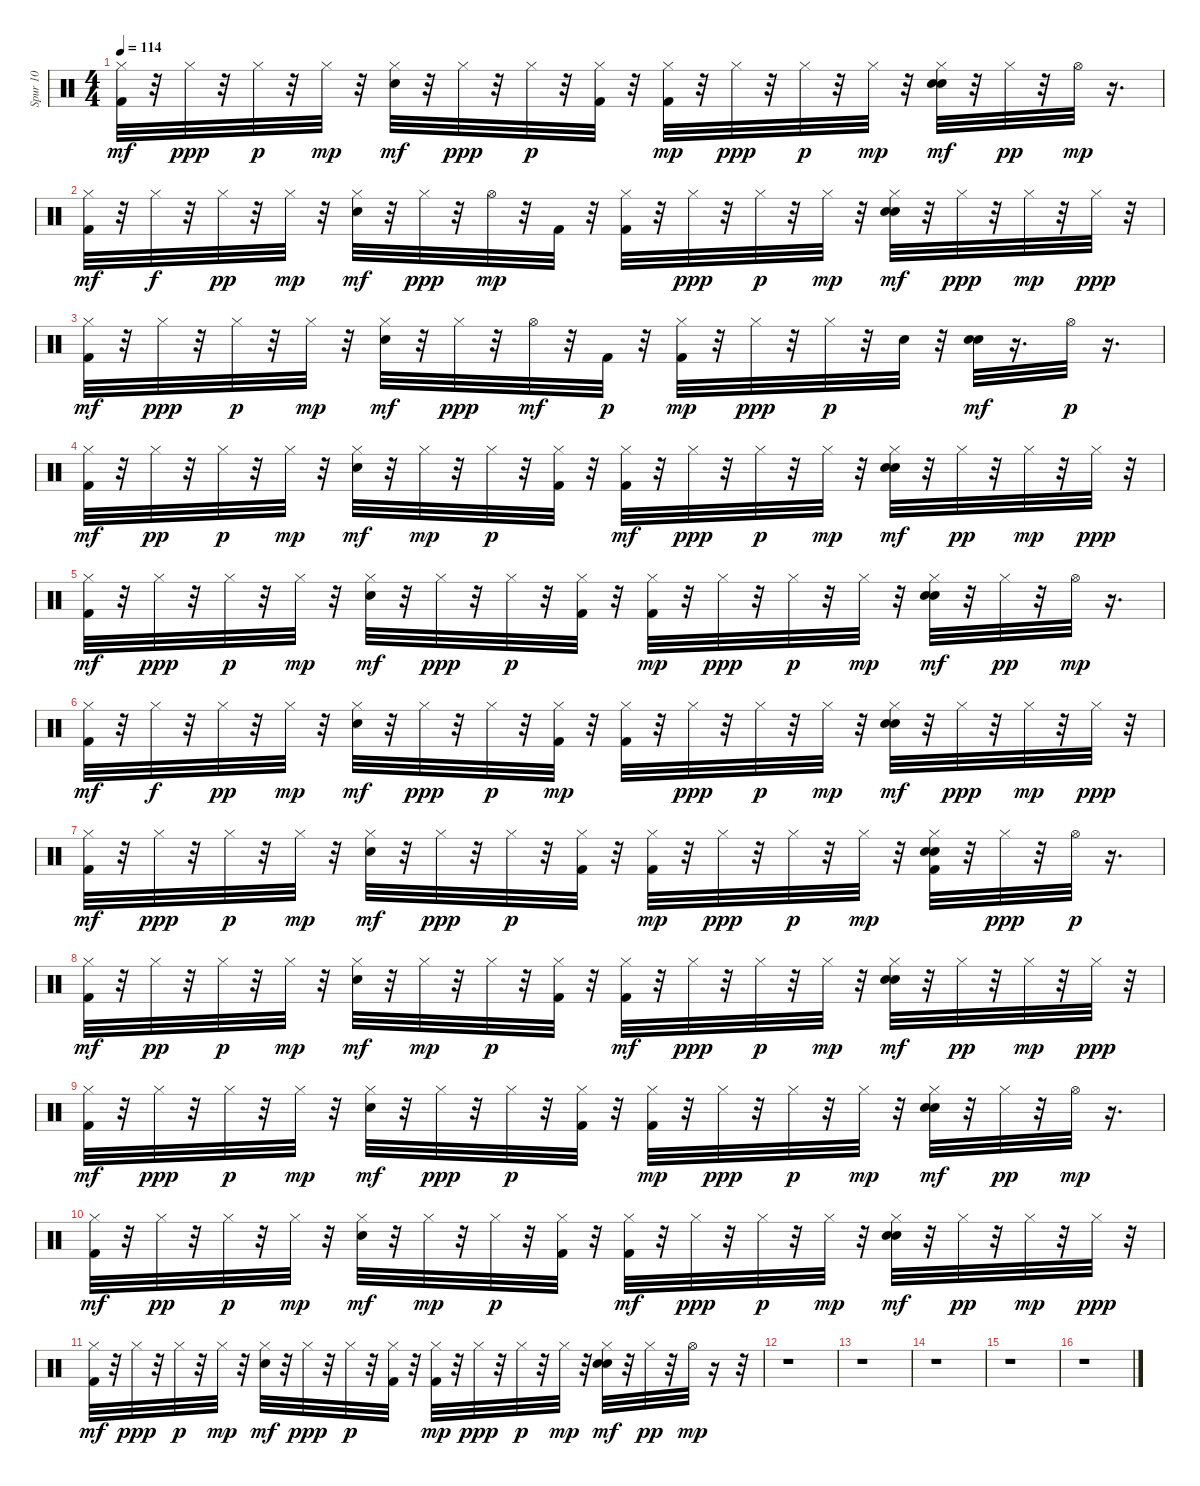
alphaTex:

\track ("Spur 10" "Spur 10") {instrument percussion}
\staff {score}
\articulation defaults
\ts (4 4)
\tempo 114
\clef neutral
\ks c
("Hi-Hat (closed)" "Kick (hit) 2").32{dy mf} r.32 "Hi-Hat (closed)".32{dy ppp} r.32 "Hi-Hat (closed)".32{dy p} r.32 "Hi-Hat (closed)".32{dy mp} r.32 ("Hi-Hat (closed)" "Electric Snare (hit)").32{dy mf} r.32 "Hi-Hat (closed)".32{dy ppp} r.32 "Hi-Hat (closed)".32{dy p} r.32 ("Hi-Hat (closed)" "Kick (hit) 2").32 r.32 ("Hi-Hat (closed)" "Kick (hit) 2").32{dy mp} r.32 "Hi-Hat (closed)".32{dy ppp} r.32 "Hi-Hat (closed)".32{dy p} r.32 "Hi-Hat (closed)".32{dy mp} r.32 ("Hand Clap (hit)" "Hi-Hat (closed)" "Electric Snare (hit)").32{dy mf} r.32 "Hi-Hat (closed)".32{dy pp} r.32 "Hi-Hat (open)".32{dy mp} r.16{d} |
("Hi-Hat (closed)" "Kick (hit) 2").32{dy mf} r.32 "Hi-Hat (closed)".32{dy f} r.32 "Hi-Hat (closed)".32{dy pp} r.32 "Hi-Hat (closed)".32{dy mp} r.32 ("Hi-Hat (closed)" "Electric Snare (hit)").32{dy mf} r.32 "Hi-Hat (closed)".32{dy ppp} r.32 "Hi-Hat (open)".32{dy mp} r.32 "Kick (hit) 2".32 r.32 ("Hi-Hat (closed)" "Kick (hit) 2").32 r.32 "Hi-Hat (closed)".32{dy ppp} r.32 "Hi-Hat (closed)".32{dy p} r.32 "Hi-Hat (closed)".32{dy mp} r.32 ("Hand Clap (hit)" "Hi-Hat (closed)" "Electric Snare (hit)").32{dy mf} r.32 "Hi-Hat (closed)".32{dy ppp} r.32 "Hi-Hat (closed)".32{dy mp} r.32 "Hi-Hat (closed)".32{dy ppp} r.32 |
("Hi-Hat (closed)" "Kick (hit) 2").32{dy mf} r.32 "Hi-Hat (closed)".32{dy ppp} r.32 "Hi-Hat (closed)".32{dy p} r.32 "Hi-Hat (closed)".32{dy mp} r.32 ("Hi-Hat (closed)" "Electric Snare (hit)").32{dy mf} r.32 "Hi-Hat (closed)".32{dy ppp} r.32 "Hi-Hat (open)".32{dy mf} r.32 "Kick (hit) 2".32{dy p} r.32 ("Hi-Hat (closed)" "Kick (hit) 2").32{dy mp} r.32 "Hi-Hat (closed)".32{dy ppp} r.32 "Hi-Hat (closed)".32{dy p} r.32 "Electric Snare (hit)".32 r.32 ("Hand Clap (hit)" "Electric Snare (hit)").32{dy mf} r.16{d} "Hi-Hat (open)".32{dy p} r.16{d} |
("Hi-Hat (closed)" "Kick (hit) 2").32{dy mf} r.32 "Hi-Hat (closed)".32{dy pp} r.32 "Hi-Hat (closed)".32{dy p} r.32 "Hi-Hat (closed)".32{dy mp} r.32 ("Hi-Hat (closed)" "Electric Snare (hit)").32{dy mf} r.32 "Hi-Hat (closed)".32{dy mp} r.32 "Hi-Hat (closed)".32{dy p} r.32 ("Hi-Hat (closed)" "Kick (hit) 2").32 r.32 ("Hi-Hat (closed)" "Kick (hit) 2").32{dy mf} r.32 "Hi-Hat (closed)".32{dy ppp} r.32 "Hi-Hat (closed)".32{dy p} r.32 "Hi-Hat (closed)".32{dy mp} r.32 ("Hand Clap (hit)" "Hi-Hat (closed)" "Electric Snare (hit)").32{dy mf} r.32 "Hi-Hat (closed)".32{dy pp} r.32 "Hi-Hat (closed)".32{dy mp} r.32 "Hi-Hat (closed)".32{dy ppp} r.32 |
("Hi-Hat (closed)" "Kick (hit) 2").32{dy mf} r.32 "Hi-Hat (closed)".32{dy ppp} r.32 "Hi-Hat (closed)".32{dy p} r.32 "Hi-Hat (closed)".32{dy mp} r.32 ("Hi-Hat (closed)" "Electric Snare (hit)").32{dy mf} r.32 "Hi-Hat (closed)".32{dy ppp} r.32 "Hi-Hat (closed)".32{dy p} r.32 ("Hi-Hat (closed)" "Kick (hit) 2").32 r.32 ("Hi-Hat (closed)" "Kick (hit) 2").32{dy mp} r.32 "Hi-Hat (closed)".32{dy ppp} r.32 "Hi-Hat (closed)".32{dy p} r.32 "Hi-Hat (closed)".32{dy mp} r.32 ("Hand Clap (hit)" "Hi-Hat (closed)" "Electric Snare (hit)").32{dy mf} r.32 "Hi-Hat (closed)".32{dy pp} r.32 "Hi-Hat (open)".32{dy mp} r.16{d} |
("Hi-Hat (closed)" "Kick (hit) 2").32{dy mf} r.32 "Hi-Hat (closed)".32{dy f} r.32 "Hi-Hat (closed)".32{dy pp} r.32 "Hi-Hat (closed)".32{dy mp} r.32 ("Hi-Hat (closed)" "Electric Snare (hit)").32{dy mf} r.32 "Hi-Hat (closed)".32{dy ppp} r.32 "Hi-Hat (closed)".32{dy p} r.32 ("Hi-Hat (closed)" "Kick (hit) 2").32{dy mp} r.32 ("Hi-Hat (closed)" "Kick (hit) 2").32 r.32 "Hi-Hat (closed)".32{dy ppp} r.32 "Hi-Hat (closed)".32{dy p} r.32 "Hi-Hat (closed)".32{dy mp} r.32 ("Hand Clap (hit)" "Hi-Hat (closed)" "Electric Snare (hit)").32{dy mf} r.32 "Hi-Hat (closed)".32{dy ppp} r.32 "Hi-Hat (closed)".32{dy mp} r.32 "Hi-Hat (closed)".32{dy ppp} r.32 |
("Hi-Hat (closed)" "Kick (hit) 2").32{dy mf} r.32 "Hi-Hat (closed)".32{dy ppp} r.32 "Hi-Hat (closed)".32{dy p} r.32 "Hi-Hat (closed)".32{dy mp} r.32 ("Hi-Hat (closed)" "Electric Snare (hit)").32{dy mf} r.32 "Hi-Hat (closed)".32{dy ppp} r.32 "Hi-Hat (closed)".32{dy p} r.32 ("Hi-Hat (closed)" "Kick (hit) 2").32 r.32 ("Hi-Hat (closed)" "Kick (hit) 2").32{dy mp} r.32 "Hi-Hat (closed)".32{dy ppp} r.32 "Hi-Hat (closed)".32{dy p} r.32 "Hi-Hat (closed)".32{dy mp} r.32 ("Hand Clap (hit)" "Hi-Hat (closed)" "Electric Snare (hit)" "Kick (hit) 2").32 r.32 "Hi-Hat (closed)".32{dy ppp} r.32 "Hi-Hat (open)".32{dy p} r.16{d} |
("Hi-Hat (closed)" "Kick (hit) 2").32{dy mf} r.32 "Hi-Hat (closed)".32{dy pp} r.32 "Hi-Hat (closed)".32{dy p} r.32 "Hi-Hat (closed)".32{dy mp} r.32 ("Hi-Hat (closed)" "Electric Snare (hit)").32{dy mf} r.32 "Hi-Hat (closed)".32{dy mp} r.32 "Hi-Hat (closed)".32{dy p} r.32 ("Hi-Hat (closed)" "Kick (hit) 2").32 r.32 ("Hi-Hat (closed)" "Kick (hit) 2").32{dy mf} r.32 "Hi-Hat (closed)".32{dy ppp} r.32 "Hi-Hat (closed)".32{dy p} r.32 "Hi-Hat (closed)".32{dy mp} r.32 ("Hand Clap (hit)" "Hi-Hat (closed)" "Electric Snare (hit)").32{dy mf} r.32 "Hi-Hat (closed)".32{dy pp} r.32 "Hi-Hat (closed)".32{dy mp} r.32 "Hi-Hat (closed)".32{dy ppp} r.32 |
("Hi-Hat (closed)" "Kick (hit) 2").32{dy mf} r.32 "Hi-Hat (closed)".32{dy ppp} r.32 "Hi-Hat (closed)".32{dy p} r.32 "Hi-Hat (closed)".32{dy mp} r.32 ("Hi-Hat (closed)" "Electric Snare (hit)").32{dy mf} r.32 "Hi-Hat (closed)".32{dy ppp} r.32 "Hi-Hat (closed)".32{dy p} r.32 ("Hi-Hat (closed)" "Kick (hit) 2").32 r.32 ("Hi-Hat (closed)" "Kick (hit) 2").32{dy mp} r.32 "Hi-Hat (closed)".32{dy ppp} r.32 "Hi-Hat (closed)".32{dy p} r.32 "Hi-Hat (closed)".32{dy mp} r.32 ("Hand Clap (hit)" "Hi-Hat (closed)" "Electric Snare (hit)").32{dy mf} r.32 "Hi-Hat (closed)".32{dy pp} r.32 "Hi-Hat (open)".32{dy mp} r.16{d} |
("Hi-Hat (closed)" "Kick (hit) 2").32{dy mf} r.32 "Hi-Hat (closed)".32{dy pp} r.32 "Hi-Hat (closed)".32{dy p} r.32 "Hi-Hat (closed)".32{dy mp} r.32 ("Hi-Hat (closed)" "Electric Snare (hit)").32{dy mf} r.32 "Hi-Hat (closed)".32{dy mp} r.32 "Hi-Hat (closed)".32{dy p} r.32 ("Hi-Hat (closed)" "Kick (hit) 2").32 r.32 ("Hi-Hat (closed)" "Kick (hit) 2").32{dy mf} r.32 "Hi-Hat (closed)".32{dy ppp} r.32 "Hi-Hat (closed)".32{dy p} r.32 "Hi-Hat (closed)".32{dy mp} r.32 ("Hand Clap (hit)" "Hi-Hat (closed)" "Electric Snare (hit)").32{dy mf} r.32 "Hi-Hat (closed)".32{dy pp} r.32 "Hi-Hat (closed)".32{dy mp} r.32 "Hi-Hat (closed)".32{dy ppp} r.32 |
("Hi-Hat (closed)" "Kick (hit) 2").32{dy mf} r.32 "Hi-Hat (closed)".32{dy ppp} r.32 "Hi-Hat (closed)".32{dy p} r.32 "Hi-Hat (closed)".32{dy mp} r.32 ("Hi-Hat (closed)" "Electric Snare (hit)").32{dy mf} r.32 "Hi-Hat (closed)".32{dy ppp} r.32 "Hi-Hat (closed)".32{dy p} r.32 ("Hi-Hat (closed)" "Kick (hit) 2").32 r.32 ("Hi-Hat (closed)" "Kick (hit) 2").32{dy mp} r.32 "Hi-Hat (closed)".32{dy ppp} r.32 "Hi-Hat (closed)".32{dy p} r.32 "Hi-Hat (closed)".32{dy mp} r.32 ("Hand Clap (hit)" "Hi-Hat (closed)" "Electric Snare (hit)").32{dy mf} r.32 "Hi-Hat (closed)".32{dy pp} r.32 "Hi-Hat (open)".32{dy mp} r.16 r.32 |
r.1 |
r.1 |
r.1 |
r.1 |
r.1
